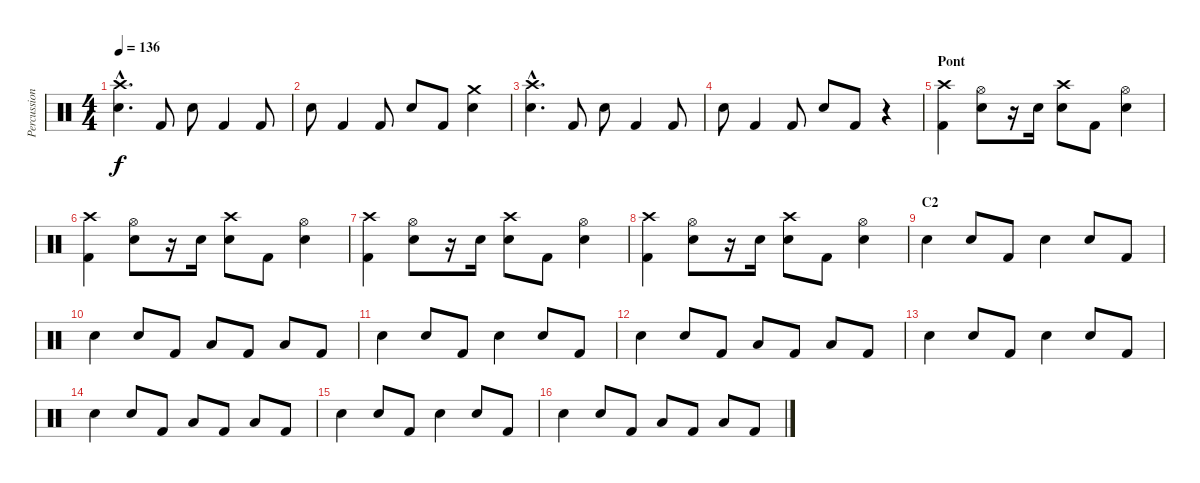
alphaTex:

\track ("Percussions" "Percussion") {instrument percussion}
\staff {score}
\articulation defaults
\ts (4 4)
\tempo 136
\clef neutral
\ks c
("Crash high (hit)"{hac} "Snare (hit) 2"{hac}).4{d dy f} "Kick (hit) 2".8 "Snare (hit) 2".8 "Kick (hit) 2".4 "Kick (hit) 2".8 |
"Snare (hit) 2".8 "Kick (hit) 2".4 "Kick (hit) 2".8 "Snare (hit) 2".8 "Kick (hit) 2".8 ("Crash medium (hit)" "Snare (hit) 2").4 |
("Crash high (hit)"{hac} "Snare (hit) 2"{hac}).4{d} "Kick (hit) 2".8 "Snare (hit) 2".8 "Kick (hit) 2".4 "Kick (hit) 2".8 |
"Snare (hit) 2".8 "Kick (hit) 2".4 "Kick (hit) 2".8 "Snare (hit) 2".8 "Kick (hit) 2".8 r.4 |
\section ("" "Pont")
("Crash high (hit)" "Kick (hit) 2").4 ("Hi-Hat (open)" "Snare (hit) 2").8 r.16 "Snare (hit) 2".16 ("Crash high (hit)" "Snare (hit) 2").8 "Kick (hit) 2".8 ("Hi-Hat (open)" "Snare (hit) 2").4 |
("Crash high (hit)" "Kick (hit) 2").4 ("Hi-Hat (open)" "Snare (hit) 2").8 r.16 "Snare (hit) 2".16 ("Crash high (hit)" "Snare (hit) 2").8 "Kick (hit) 2".8 ("Hi-Hat (open)" "Snare (hit) 2").4 |
("Crash high (hit)" "Kick (hit) 2").4 ("Hi-Hat (open)" "Snare (hit) 2").8 r.16 "Snare (hit) 2".16 ("Crash high (hit)" "Snare (hit) 2").8 "Kick (hit) 2".8 ("Hi-Hat (open)" "Snare (hit) 2").4 |
("Crash high (hit)" "Kick (hit) 2").4 ("Hi-Hat (open)" "Snare (hit) 2").8 r.16 "Snare (hit) 2".16 ("Crash high (hit)" "Snare (hit) 2").8 "Kick (hit) 2".8 ("Hi-Hat (open)" "Snare (hit) 2").4 |
\section ("" "C2")
"Snare (hit) 2".4 "Snare (hit) 2".8 "Kick (hit) 2".8 "Snare (hit) 2".4 "Snare (hit) 2".8 "Kick (hit) 2".8 |
"Snare (hit) 2".4 "Snare (hit) 2".8 "Kick (hit) 2".8 "Low Tom (hit)".8 "Kick (hit) 2".8 "Low Floor Tom (hit)".8 "Kick (hit) 2".8 |
"Snare (hit) 2".4 "Snare (hit) 2".8 "Kick (hit) 2".8 "Snare (hit) 2".4 "Snare (hit) 2".8 "Kick (hit) 2".8 |
"Snare (hit) 2".4 "Snare (hit) 2".8 "Kick (hit) 2".8 "Low Tom (hit)".8 "Kick (hit) 2".8 "Low Floor Tom (hit)".8 "Kick (hit) 2".8 |
"Snare (hit) 2".4 "Snare (hit) 2".8 "Kick (hit) 2".8 "Snare (hit) 2".4 "Snare (hit) 2".8 "Kick (hit) 2".8 |
"Snare (hit) 2".4 "Snare (hit) 2".8 "Kick (hit) 2".8 "Low Tom (hit)".8 "Kick (hit) 2".8 "Low Floor Tom (hit)".8 "Kick (hit) 2".8 |
"Snare (hit) 2".4 "Snare (hit) 2".8 "Kick (hit) 2".8 "Snare (hit) 2".4 "Snare (hit) 2".8 "Kick (hit) 2".8 |
"Snare (hit) 2".4 "Snare (hit) 2".8 "Kick (hit) 2".8 "Low Tom (hit)".8 "Kick (hit) 2".8 "Low Floor Tom (hit)".8 "Kick (hit) 2".8
